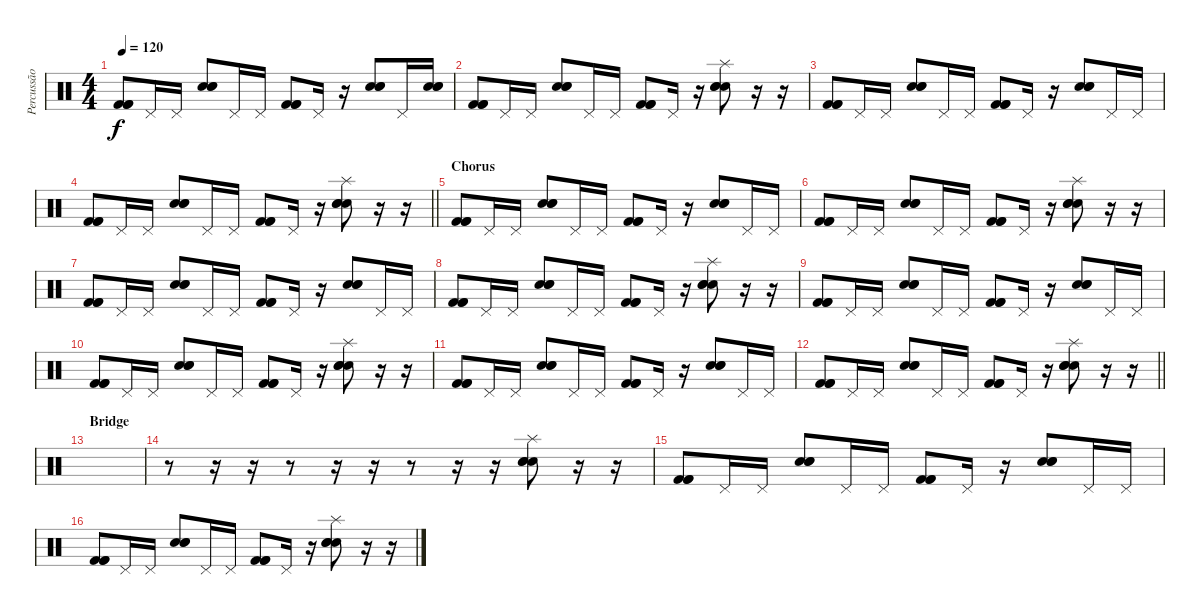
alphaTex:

\track ("Percussão" "Percussão") {instrument percussion}
\staff {score}
\articulation defaults
\ts (4 4)
\tempo 120
\clef neutral
\ks c
("Kick (hit) 2" "Kick (hit) 2" "Kick (hit) 2").8{dy f} "Pedal Hi-Hat (hit)".16 "Pedal Hi-Hat (hit)".16 ("Hand Clap (hit)" "Hand Clap (hit)" "Hand Clap (hit)").8 "Pedal Hi-Hat (hit)".16 "Pedal Hi-Hat (hit)".16 ("Kick (hit) 2" "Kick (hit) 2" "Kick (hit) 2").8 "Pedal Hi-Hat (hit)".16 r.16 ("Hand Clap (hit)" "Hand Clap (hit)" "Hand Clap (hit)").8 "Pedal Hi-Hat (hit)".16 ("Hand Clap (hit)" "Hand Clap (hit)" "Hand Clap (hit)").16 |
("Kick (hit) 2" "Kick (hit) 2" "Kick (hit) 2").8 "Pedal Hi-Hat (hit)".16 "Pedal Hi-Hat (hit)".16 ("Hand Clap (hit)" "Hand Clap (hit)" "Hand Clap (hit)").8 "Pedal Hi-Hat (hit)".16 "Pedal Hi-Hat (hit)".16 ("Kick (hit) 2" "Kick (hit) 2" "Kick (hit) 2").8 "Pedal Hi-Hat (hit)".16 r.16 ("Splash (hit)" "Hand Clap (hit)" "Hand Clap (hit)" "Hand Clap (hit)").8 r.16 r.16 |
("Kick (hit) 2" "Kick (hit) 2" "Kick (hit) 2").8 "Pedal Hi-Hat (hit)".16 "Pedal Hi-Hat (hit)".16 ("Hand Clap (hit)" "Hand Clap (hit)" "Hand Clap (hit)").8 "Pedal Hi-Hat (hit)".16 "Pedal Hi-Hat (hit)".16 ("Kick (hit) 2" "Kick (hit) 2" "Kick (hit) 2").8 "Pedal Hi-Hat (hit)".16 r.16 ("Hand Clap (hit)" "Hand Clap (hit)" "Hand Clap (hit)").8 "Pedal Hi-Hat (hit)".16 "Pedal Hi-Hat (hit)".16 |
\barLineRight lightlight
("Kick (hit) 2" "Kick (hit) 2" "Kick (hit) 2").8 "Pedal Hi-Hat (hit)".16 "Pedal Hi-Hat (hit)".16 ("Hand Clap (hit)" "Hand Clap (hit)" "Hand Clap (hit)").8 "Pedal Hi-Hat (hit)".16 "Pedal Hi-Hat (hit)".16 ("Kick (hit) 2" "Kick (hit) 2" "Kick (hit) 2").8 "Pedal Hi-Hat (hit)".16 r.16 ("Splash (hit)" "Hand Clap (hit)" "Hand Clap (hit)" "Hand Clap (hit)").8 r.16 r.16 |
\section ("" "Chorus")
("Kick (hit) 2" "Kick (hit) 2" "Kick (hit) 2").8 "Pedal Hi-Hat (hit)".16 "Pedal Hi-Hat (hit)".16 ("Hand Clap (hit)" "Hand Clap (hit)" "Hand Clap (hit)").8 "Pedal Hi-Hat (hit)".16 "Pedal Hi-Hat (hit)".16 ("Kick (hit) 2" "Kick (hit) 2" "Kick (hit) 2").8 "Pedal Hi-Hat (hit)".16 r.16 ("Hand Clap (hit)" "Hand Clap (hit)" "Hand Clap (hit)").8 "Pedal Hi-Hat (hit)".16 "Pedal Hi-Hat (hit)".16 |
("Kick (hit) 2" "Kick (hit) 2" "Kick (hit) 2").8 "Pedal Hi-Hat (hit)".16 "Pedal Hi-Hat (hit)".16 ("Hand Clap (hit)" "Hand Clap (hit)" "Hand Clap (hit)").8 "Pedal Hi-Hat (hit)".16 "Pedal Hi-Hat (hit)".16 ("Kick (hit) 2" "Kick (hit) 2" "Kick (hit) 2").8 "Pedal Hi-Hat (hit)".16 r.16 ("Splash (hit)" "Hand Clap (hit)" "Hand Clap (hit)" "Hand Clap (hit)").8 r.16 r.16 |
("Kick (hit) 2" "Kick (hit) 2" "Kick (hit) 2").8 "Pedal Hi-Hat (hit)".16 "Pedal Hi-Hat (hit)".16 ("Hand Clap (hit)" "Hand Clap (hit)" "Hand Clap (hit)").8 "Pedal Hi-Hat (hit)".16 "Pedal Hi-Hat (hit)".16 ("Kick (hit) 2" "Kick (hit) 2" "Kick (hit) 2").8 "Pedal Hi-Hat (hit)".16 r.16 ("Hand Clap (hit)" "Hand Clap (hit)" "Hand Clap (hit)").8 "Pedal Hi-Hat (hit)".16 "Pedal Hi-Hat (hit)".16 |
("Kick (hit) 2" "Kick (hit) 2" "Kick (hit) 2").8 "Pedal Hi-Hat (hit)".16 "Pedal Hi-Hat (hit)".16 ("Hand Clap (hit)" "Hand Clap (hit)" "Hand Clap (hit)").8 "Pedal Hi-Hat (hit)".16 "Pedal Hi-Hat (hit)".16 ("Kick (hit) 2" "Kick (hit) 2" "Kick (hit) 2").8 "Pedal Hi-Hat (hit)".16 r.16 ("Splash (hit)" "Hand Clap (hit)" "Hand Clap (hit)" "Hand Clap (hit)").8 r.16 r.16 |
("Kick (hit) 2" "Kick (hit) 2" "Kick (hit) 2").8 "Pedal Hi-Hat (hit)".16 "Pedal Hi-Hat (hit)".16 ("Hand Clap (hit)" "Hand Clap (hit)" "Hand Clap (hit)").8 "Pedal Hi-Hat (hit)".16 "Pedal Hi-Hat (hit)".16 ("Kick (hit) 2" "Kick (hit) 2" "Kick (hit) 2").8 "Pedal Hi-Hat (hit)".16 r.16 ("Hand Clap (hit)" "Hand Clap (hit)" "Hand Clap (hit)").8 "Pedal Hi-Hat (hit)".16 "Pedal Hi-Hat (hit)".16 |
("Kick (hit) 2" "Kick (hit) 2" "Kick (hit) 2").8 "Pedal Hi-Hat (hit)".16 "Pedal Hi-Hat (hit)".16 ("Hand Clap (hit)" "Hand Clap (hit)" "Hand Clap (hit)").8 "Pedal Hi-Hat (hit)".16 "Pedal Hi-Hat (hit)".16 ("Kick (hit) 2" "Kick (hit) 2" "Kick (hit) 2").8 "Pedal Hi-Hat (hit)".16 r.16 ("Splash (hit)" "Hand Clap (hit)" "Hand Clap (hit)" "Hand Clap (hit)").8 r.16 r.16 |
("Kick (hit) 2" "Kick (hit) 2" "Kick (hit) 2").8 "Pedal Hi-Hat (hit)".16 "Pedal Hi-Hat (hit)".16 ("Hand Clap (hit)" "Hand Clap (hit)" "Hand Clap (hit)").8 "Pedal Hi-Hat (hit)".16 "Pedal Hi-Hat (hit)".16 ("Kick (hit) 2" "Kick (hit) 2" "Kick (hit) 2").8 "Pedal Hi-Hat (hit)".16 r.16 ("Hand Clap (hit)" "Hand Clap (hit)" "Hand Clap (hit)").8 "Pedal Hi-Hat (hit)".16 "Pedal Hi-Hat (hit)".16 |
\barLineRight lightlight
("Kick (hit) 2" "Kick (hit) 2" "Kick (hit) 2").8 "Pedal Hi-Hat (hit)".16 "Pedal Hi-Hat (hit)".16 ("Hand Clap (hit)" "Hand Clap (hit)" "Hand Clap (hit)").8 "Pedal Hi-Hat (hit)".16 "Pedal Hi-Hat (hit)".16 ("Kick (hit) 2" "Kick (hit) 2" "Kick (hit) 2").8 "Pedal Hi-Hat (hit)".16 r.16 ("Splash (hit)" "Hand Clap (hit)" "Hand Clap (hit)" "Hand Clap (hit)").8 r.16 r.16 |
\section ("" "Bridge")
|
r.8 r.16 r.16 r.8 r.16 r.16 r.8 r.16 r.16 ("Splash (hit)" "Hand Clap (hit)" "Hand Clap (hit)" "Hand Clap (hit)").8 r.16 r.16 |
("Kick (hit) 2" "Kick (hit) 2" "Kick (hit) 2").8 "Pedal Hi-Hat (hit)".16 "Pedal Hi-Hat (hit)".16 ("Hand Clap (hit)" "Hand Clap (hit)" "Hand Clap (hit)").8 "Pedal Hi-Hat (hit)".16 "Pedal Hi-Hat (hit)".16 ("Kick (hit) 2" "Kick (hit) 2" "Kick (hit) 2").8 "Pedal Hi-Hat (hit)".16 r.16 ("Hand Clap (hit)" "Hand Clap (hit)" "Hand Clap (hit)").8 "Pedal Hi-Hat (hit)".16 "Pedal Hi-Hat (hit)".16 |
("Kick (hit) 2" "Kick (hit) 2" "Kick (hit) 2").8 "Pedal Hi-Hat (hit)".16 "Pedal Hi-Hat (hit)".16 ("Hand Clap (hit)" "Hand Clap (hit)" "Hand Clap (hit)").8 "Pedal Hi-Hat (hit)".16 "Pedal Hi-Hat (hit)".16 ("Kick (hit) 2" "Kick (hit) 2" "Kick (hit) 2").8 "Pedal Hi-Hat (hit)".16 r.16 ("Splash (hit)" "Hand Clap (hit)" "Hand Clap (hit)" "Hand Clap (hit)").8 r.16 r.16
